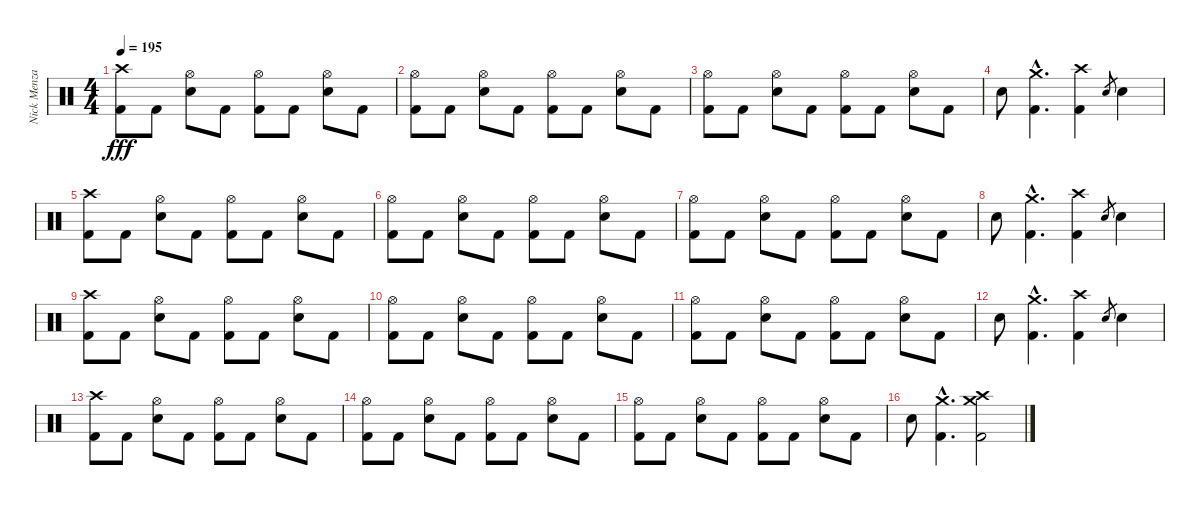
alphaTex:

\track ("Nick Menza" "Nick Menza") {instrument percussion}
\staff {score}
\articulation defaults
\ts (4 4)
\tempo 195
\clef neutral
\ks c
("Kick (hit) 2" "Crash high (hit)").8{dy fff} "Kick (hit) 2".8 ("Electric Snare (hit)" "Hi-Hat (open)").8 "Kick (hit) 2".8 ("Kick (hit) 2" "Hi-Hat (open)").8 "Kick (hit) 2".8 ("Electric Snare (hit)" "Hi-Hat (open)").8 "Kick (hit) 2".8 |
("Kick (hit) 2" "Hi-Hat (open)").8 "Kick (hit) 2".8 ("Electric Snare (hit)" "Hi-Hat (open)").8 "Kick (hit) 2".8 ("Kick (hit) 2" "Hi-Hat (open)").8 "Kick (hit) 2".8 ("Electric Snare (hit)" "Hi-Hat (open)").8 "Kick (hit) 2".8 |
("Kick (hit) 2" "Hi-Hat (open)").8 "Kick (hit) 2".8 ("Electric Snare (hit)" "Hi-Hat (open)").8 "Kick (hit) 2".8 ("Kick (hit) 2" "Hi-Hat (open)").8 "Kick (hit) 2".8 ("Electric Snare (hit)" "Hi-Hat (open)").8 "Kick (hit) 2".8 |
"Electric Snare (hit)".8 ("Kick (hit) 2"{hac} "Crash medium (hit)"{hac}).4{d} ("Kick (hit) 2" "Crash high (hit)").4 "Electric Snare (hit)".8{gr} "Electric Snare (hit)".4 |
("Kick (hit) 2" "Crash high (hit)").8 "Kick (hit) 2".8 ("Electric Snare (hit)" "Hi-Hat (open)").8 "Kick (hit) 2".8 ("Kick (hit) 2" "Hi-Hat (open)").8 "Kick (hit) 2".8 ("Electric Snare (hit)" "Hi-Hat (open)").8 "Kick (hit) 2".8 |
("Kick (hit) 2" "Hi-Hat (open)").8 "Kick (hit) 2".8 ("Electric Snare (hit)" "Hi-Hat (open)").8 "Kick (hit) 2".8 ("Kick (hit) 2" "Hi-Hat (open)").8 "Kick (hit) 2".8 ("Electric Snare (hit)" "Hi-Hat (open)").8 "Kick (hit) 2".8 |
("Kick (hit) 2" "Hi-Hat (open)").8 "Kick (hit) 2".8 ("Electric Snare (hit)" "Hi-Hat (open)").8 "Kick (hit) 2".8 ("Kick (hit) 2" "Hi-Hat (open)").8 "Kick (hit) 2".8 ("Electric Snare (hit)" "Hi-Hat (open)").8 "Kick (hit) 2".8 |
"Electric Snare (hit)".8 ("Kick (hit) 2"{hac} "Crash medium (hit)"{hac}).4{d} ("Kick (hit) 2" "Crash high (hit)").4 "Electric Snare (hit)".8{gr} "Electric Snare (hit)".4 |
("Kick (hit) 2" "Crash high (hit)").8 "Kick (hit) 2".8 ("Electric Snare (hit)" "Hi-Hat (open)").8 "Kick (hit) 2".8 ("Kick (hit) 2" "Hi-Hat (open)").8 "Kick (hit) 2".8 ("Electric Snare (hit)" "Hi-Hat (open)").8 "Kick (hit) 2".8 |
("Kick (hit) 2" "Hi-Hat (open)").8 "Kick (hit) 2".8 ("Electric Snare (hit)" "Hi-Hat (open)").8 "Kick (hit) 2".8 ("Kick (hit) 2" "Hi-Hat (open)").8 "Kick (hit) 2".8 ("Electric Snare (hit)" "Hi-Hat (open)").8 "Kick (hit) 2".8 |
("Kick (hit) 2" "Hi-Hat (open)").8 "Kick (hit) 2".8 ("Electric Snare (hit)" "Hi-Hat (open)").8 "Kick (hit) 2".8 ("Kick (hit) 2" "Hi-Hat (open)").8 "Kick (hit) 2".8 ("Electric Snare (hit)" "Hi-Hat (open)").8 "Kick (hit) 2".8 |
"Electric Snare (hit)".8 ("Kick (hit) 2"{hac} "Crash medium (hit)"{hac}).4{d} ("Kick (hit) 2" "Crash high (hit)").4 "Electric Snare (hit)".8{gr} "Electric Snare (hit)".4 |
("Kick (hit) 2" "Crash high (hit)").8 "Kick (hit) 2".8 ("Electric Snare (hit)" "Hi-Hat (open)").8 "Kick (hit) 2".8 ("Kick (hit) 2" "Hi-Hat (open)").8 "Kick (hit) 2".8 ("Electric Snare (hit)" "Hi-Hat (open)").8 "Kick (hit) 2".8 |
("Kick (hit) 2" "Hi-Hat (open)").8 "Kick (hit) 2".8 ("Electric Snare (hit)" "Hi-Hat (open)").8 "Kick (hit) 2".8 ("Kick (hit) 2" "Hi-Hat (open)").8 "Kick (hit) 2".8 ("Electric Snare (hit)" "Hi-Hat (open)").8 "Kick (hit) 2".8 |
("Kick (hit) 2" "Hi-Hat (open)").8 "Kick (hit) 2".8 ("Electric Snare (hit)" "Hi-Hat (open)").8 "Kick (hit) 2".8 ("Kick (hit) 2" "Hi-Hat (open)").8 "Kick (hit) 2".8 ("Electric Snare (hit)" "Hi-Hat (open)").8 "Kick (hit) 2".8 |
"Electric Snare (hit)".8 ("Kick (hit) 2"{hac} "Crash medium (hit)"{hac}).4{d} ("Kick (hit) 2" "Crash high (hit)" "Crash medium (hit)").2
